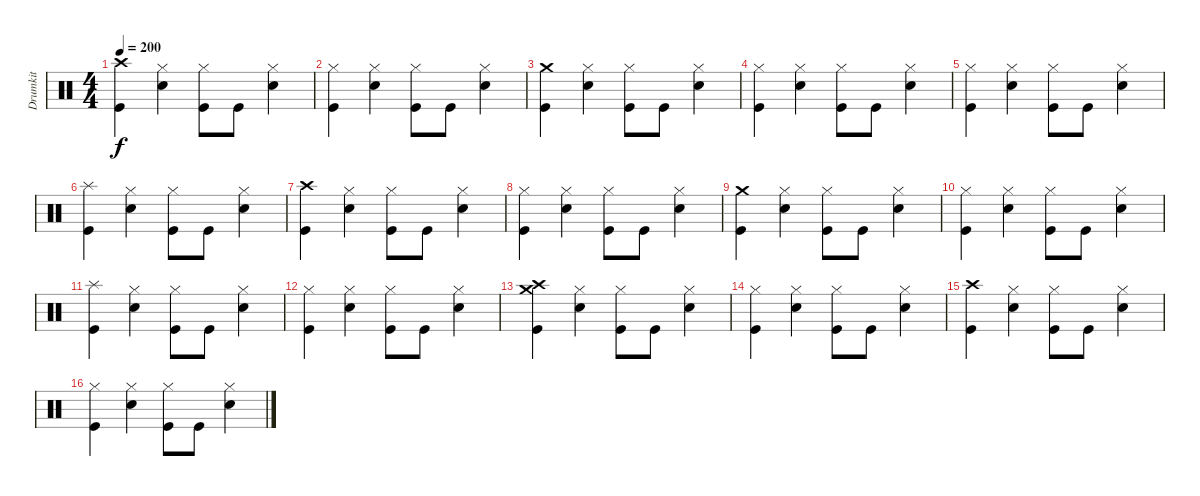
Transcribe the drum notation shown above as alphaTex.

\track ("Drumkit" "Drumkit") {instrument percussion}
\staff {score}
\articulation defaults
\ts (4 4)
\tempo 200
\clef neutral
\ks c
("Crash high (hit)" "Kick (hit)").4{dy f} ("Hi-Hat (closed)" "Snare (hit) 2").4 ("Hi-Hat (closed)" "Kick (hit)").8 "Kick (hit)".8 ("Hi-Hat (closed)" "Snare (hit) 2").4 |
("Hi-Hat (closed)" "Kick (hit)").4 ("Hi-Hat (closed)" "Snare (hit) 2").4 ("Hi-Hat (closed)" "Kick (hit)").8 "Kick (hit)".8 ("Hi-Hat (closed)" "Snare (hit) 2").4 |
("Crash medium (hit)" "Kick (hit)").4 ("Hi-Hat (closed)" "Snare (hit) 2").4 ("Hi-Hat (closed)" "Kick (hit)").8 "Kick (hit)".8 ("Hi-Hat (closed)" "Snare (hit) 2").4 |
("Hi-Hat (closed)" "Kick (hit)").4 ("Hi-Hat (closed)" "Snare (hit) 2").4 ("Hi-Hat (closed)" "Kick (hit)").8 "Kick (hit)".8 ("Hi-Hat (closed)" "Snare (hit) 2").4 |
("Hi-Hat (closed)" "Kick (hit)").4 ("Hi-Hat (closed)" "Snare (hit) 2").4 ("Hi-Hat (closed)" "Kick (hit)").8 "Kick (hit)".8 ("Hi-Hat (closed)" "Snare (hit) 2").4 |
("Splash (hit)" "Kick (hit)").4 ("Hi-Hat (closed)" "Snare (hit) 2").4 ("Hi-Hat (closed)" "Kick (hit)").8 "Kick (hit)".8 ("Hi-Hat (closed)" "Snare (hit) 2").4 |
("Crash high (hit)" "Kick (hit)").4 ("Hi-Hat (closed)" "Snare (hit) 2").4 ("Hi-Hat (closed)" "Kick (hit)").8 "Kick (hit)".8 ("Hi-Hat (closed)" "Snare (hit) 2").4 |
("Hi-Hat (closed)" "Kick (hit)").4 ("Hi-Hat (closed)" "Snare (hit) 2").4 ("Hi-Hat (closed)" "Kick (hit)").8 "Kick (hit)".8 ("Hi-Hat (closed)" "Snare (hit) 2").4 |
("Crash medium (hit)" "Kick (hit)").4 ("Hi-Hat (closed)" "Snare (hit) 2").4 ("Hi-Hat (closed)" "Kick (hit)").8 "Kick (hit)".8 ("Hi-Hat (closed)" "Snare (hit) 2").4 |
("Hi-Hat (closed)" "Kick (hit)").4 ("Hi-Hat (closed)" "Snare (hit) 2").4 ("Hi-Hat (closed)" "Kick (hit)").8 "Kick (hit)".8 ("Hi-Hat (closed)" "Snare (hit) 2").4 |
("Splash (hit)" "Kick (hit)").4 ("Hi-Hat (closed)" "Snare (hit) 2").4 ("Hi-Hat (closed)" "Kick (hit)").8 "Kick (hit)".8 ("Hi-Hat (closed)" "Snare (hit) 2").4 |
("Hi-Hat (closed)" "Kick (hit)").4 ("Hi-Hat (closed)" "Snare (hit) 2").4 ("Hi-Hat (closed)" "Kick (hit)").8 "Kick (hit)".8 ("Hi-Hat (closed)" "Snare (hit) 2").4 |
("Crash medium (hit)" "Crash high (hit)" "Kick (hit)").4 ("Hi-Hat (closed)" "Snare (hit) 2").4 ("Hi-Hat (closed)" "Kick (hit)").8 "Kick (hit)".8 ("Hi-Hat (closed)" "Snare (hit) 2").4 |
("Hi-Hat (closed)" "Kick (hit)").4 ("Hi-Hat (closed)" "Snare (hit) 2").4 ("Hi-Hat (closed)" "Kick (hit)").8 "Kick (hit)".8 ("Hi-Hat (closed)" "Snare (hit) 2").4 |
("Crash high (hit)" "Kick (hit)").4 ("Hi-Hat (closed)" "Snare (hit) 2").4 ("Hi-Hat (closed)" "Kick (hit)").8 "Kick (hit)".8 ("Hi-Hat (closed)" "Snare (hit) 2").4 |
("Hi-Hat (closed)" "Kick (hit)").4 ("Hi-Hat (closed)" "Snare (hit) 2").4 ("Hi-Hat (closed)" "Kick (hit)").8 "Kick (hit)".8 ("Hi-Hat (closed)" "Snare (hit) 2").4
